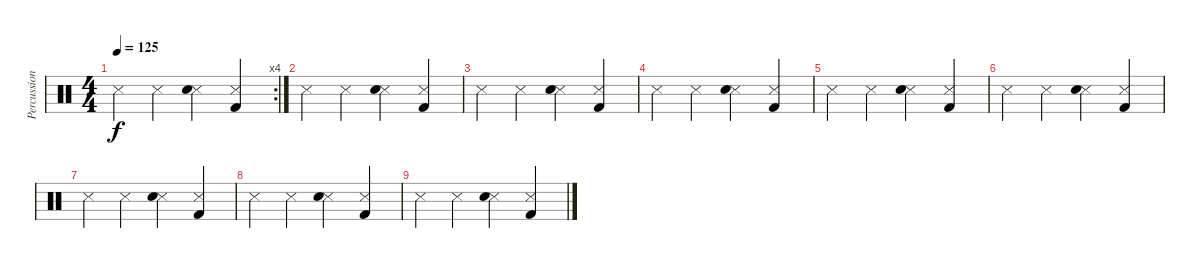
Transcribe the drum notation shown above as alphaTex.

\track ("Percussion" "Percussion") {instrument percussion}
\staff {score}
\articulation defaults
\rc 4
\ts (4 4)
\tempo 125
\clef neutral
\ks c "Snare (side stick) 3".4{dy f} "Snare (side stick) 3".4
("Snare (side stick) 3" "Electric Snare (hit)").4 ("Snare (side stick) 3" "Kick (hit) 2").4 |
"Snare (side stick) 3".4 "Snare (side stick) 3".4 ("Snare (side stick) 3" "Electric Snare (hit)").4 ("Snare (side stick) 3" "Kick (hit) 2").4 |
"Snare (side stick) 3".4 "Snare (side stick) 3".4 ("Snare (side stick) 3" "Electric Snare (hit)").4 ("Snare (side stick) 3" "Kick (hit) 2").4 |
"Snare (side stick) 3".4 "Snare (side stick) 3".4 ("Snare (side stick) 3" "Electric Snare (hit)").4 ("Snare (side stick) 3" "Kick (hit) 2").4 |
"Snare (side stick) 3".4 "Snare (side stick) 3".4 ("Snare (side stick) 3" "Electric Snare (hit)").4 ("Snare (side stick) 3" "Kick (hit) 2").4 |
"Snare (side stick) 3".4 "Snare (side stick) 3".4 ("Snare (side stick) 3" "Electric Snare (hit)").4 ("Snare (side stick) 3" "Kick (hit) 2").4 |
"Snare (side stick) 3".4 "Snare (side stick) 3".4 ("Snare (side stick) 3" "Electric Snare (hit)").4 ("Snare (side stick) 3" "Kick (hit) 2").4 |
"Snare (side stick) 3".4 "Snare (side stick) 3".4 ("Snare (side stick) 3" "Electric Snare (hit)").4 ("Snare (side stick) 3" "Kick (hit) 2").4 |
"Snare (side stick) 3".4 "Snare (side stick) 3".4 ("Snare (side stick) 3" "Electric Snare (hit)").4 ("Snare (side stick) 3" "Kick (hit) 2").4
